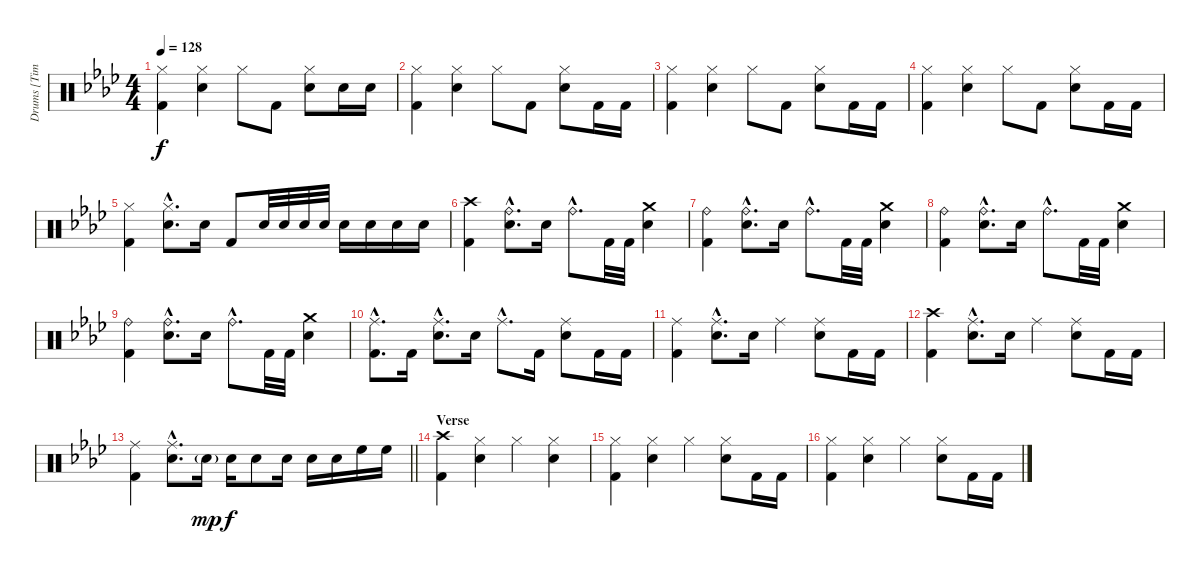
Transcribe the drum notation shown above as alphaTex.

\track ("Drums [Tim Alexander]" "Drums [Tim") {instrument percussion}
\staff {score}
\articulation defaults
\ts (4 4)
\tempo 128
\clef neutral
\ks ab
("Hi-Hat (closed)" "Kick (hit) 2").4{dy f} ("Hi-Hat (closed)" "Electric Snare (hit)").4 "Hi-Hat (closed)".8 "Kick (hit) 2".8 ("Hi-Hat (closed)" "Electric Snare (hit)").8 "Electric Snare (hit)".16 "Electric Snare (hit)".16 |
("Hi-Hat (closed)" "Kick (hit) 2").4 ("Hi-Hat (closed)" "Electric Snare (hit)").4 "Hi-Hat (closed)".8 "Kick (hit) 2".8 ("Hi-Hat (closed)" "Electric Snare (hit)").8 "Kick (hit) 2".16 "Kick (hit) 2".16 |
("Hi-Hat (closed)" "Kick (hit) 2").4 ("Hi-Hat (closed)" "Electric Snare (hit)").4 "Hi-Hat (closed)".8 "Kick (hit) 2".8 ("Hi-Hat (closed)" "Electric Snare (hit)").8 "Kick (hit) 2".16 "Kick (hit) 2".16 |
("Hi-Hat (closed)" "Kick (hit) 2").4 ("Hi-Hat (closed)" "Electric Snare (hit)").4 "Hi-Hat (closed)".8 "Kick (hit) 2".8 ("Hi-Hat (closed)" "Electric Snare (hit)").8 "Kick (hit) 2".16 "Kick (hit) 2".16 |
("Hi-Hat (closed)" "Kick (hit) 2").4 ("Hi-Hat (closed)"{hac} "Electric Snare (hit)"{hac}).8{d} "Electric Snare (hit)".16 "Kick (hit) 2".8 "Electric Snare (hit)".32 "Electric Snare (hit)".32 "Electric Snare (hit)".32 "Electric Snare (hit)".32 "Electric Snare (hit)".16 "Electric Snare (hit)".16 "Electric Snare (hit)".16 "Electric Snare (hit)".16 |
("Crash high (hit)" "Kick (hit) 2").4 ("Ride (bell)"{hac} "Electric Snare (hit)"{hac}).8{d} "Electric Snare (hit)".16 "Ride (bell)"{hac}.8{d} "Kick (hit) 2".32 "Kick (hit) 2".32 ("Crash medium (hit)" "Electric Snare (hit)").4 |
("Ride (bell)" "Kick (hit) 2").4 ("Ride (bell)"{hac} "Electric Snare (hit)"{hac}).8{d} "Electric Snare (hit)".16 "Ride (bell)"{hac}.8{d} "Kick (hit) 2".32 "Kick (hit) 2".32 ("Crash medium (hit)" "Electric Snare (hit)").4 |
("Ride (bell)" "Kick (hit) 2").4 ("Ride (bell)"{hac} "Electric Snare (hit)"{hac}).8{d} "Electric Snare (hit)".16 "Ride (bell)"{hac}.8{d} "Kick (hit) 2".32 "Kick (hit) 2".32 ("Crash medium (hit)" "Electric Snare (hit)").4 |
("Ride (bell)" "Kick (hit) 2").4 ("Ride (bell)"{hac} "Electric Snare (hit)"{hac}).8{d} "Electric Snare (hit)".16 "Ride (bell)"{hac}.8{d} "Kick (hit) 2".32 "Kick (hit) 2".32 ("Crash medium (hit)" "Electric Snare (hit)").4 |
("Ride (middle)"{hac} "Kick (hit) 2"{hac}).8{d} "Kick (hit) 2".16 ("Ride (middle)"{hac} "Electric Snare (hit)"{hac}).8{d} "Electric Snare (hit)".16 "Ride (middle)"{hac}.8{d} "Kick (hit) 2".16 ("Ride (middle)" "Electric Snare (hit)").8 "Kick (hit) 2".16 "Kick (hit) 2".16 |
("Ride (middle)" "Kick (hit) 2").4 ("Ride (middle)"{hac} "Electric Snare (hit)"{hac}).8{d} "Electric Snare (hit)".16 "Ride (middle)".4 ("Ride (middle)" "Electric Snare (hit)").8 "Kick (hit) 2".16 "Kick (hit) 2".16 |
("Crash high (hit)" "Kick (hit) 2").4 ("Ride (middle)"{hac} "Electric Snare (hit)"{hac}).8{d} "Electric Snare (hit)".16 "Ride (middle)".4 ("Ride (middle)" "Electric Snare (hit)").8 "Kick (hit) 2".16 "Kick (hit) 2".16 |
\barLineRight lightlight
("Ride (middle)" "Kick (hit) 2").4 ("Ride (middle)"{hac} "Electric Snare (hit)"{hac}).8{d} "Electric Snare (hit)"{g}.16{dy mp} "Electric Snare (hit)".16{dy f} "Electric Snare (hit)".8 "Electric Snare (hit)".16 "Electric Snare (hit)".16 "Electric Snare (hit)".16 "High Floor Tom (hit)".16 "High Floor Tom (hit)".16 |
\section ("" "Verse")
("Crash high (hit)" "Kick (hit) 2").4 ("Hi-Hat (closed)" "Electric Snare (hit)").4 "Hi-Hat (closed)".4 ("Hi-Hat (closed)" "Electric Snare (hit)").4 |
("Hi-Hat (closed)" "Kick (hit) 2").4 ("Hi-Hat (closed)" "Electric Snare (hit)").4 "Hi-Hat (closed)".4 ("Hi-Hat (closed)" "Electric Snare (hit)").8 "Kick (hit) 2".16 "Kick (hit) 2".16 |
("Hi-Hat (closed)" "Kick (hit) 2").4 ("Hi-Hat (closed)" "Electric Snare (hit)").4 "Hi-Hat (closed)".4 ("Hi-Hat (closed)" "Electric Snare (hit)").8 "Kick (hit) 2".16 "Kick (hit) 2".16
